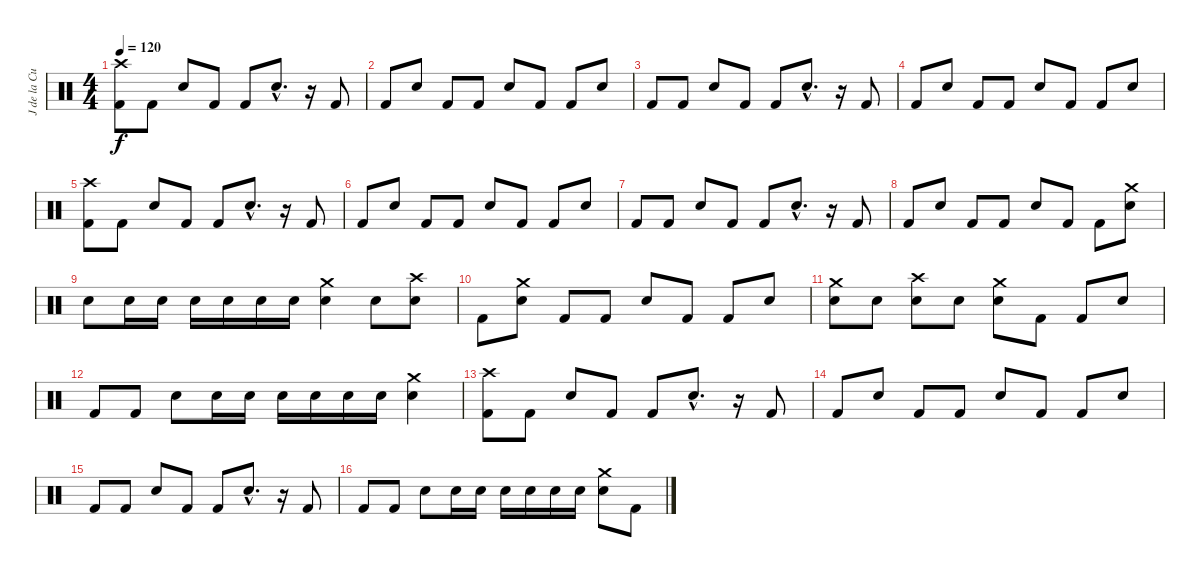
\track ("J de la Cueva" "J de la Cu") {instrument percussion}
\staff {score}
\articulation defaults
\ts (4 4)
\tempo 120
\clef neutral
\ks c
("Crash high (hit)" "Kick (hit) 2").8{dy f} "Kick (hit) 2".8 "Snare (hit) 2".8 "Kick (hit) 2".8 "Kick (hit) 2".8 "Snare (hit) 2"{hac}.8{d} r.16 "Kick (hit) 2".8 |
"Kick (hit) 2".8 "Snare (hit) 2".8 "Kick (hit) 2".8 "Kick (hit) 2".8 "Snare (hit) 2".8 "Kick (hit) 2".8 "Kick (hit) 2".8 "Snare (hit) 2".8 |
"Kick (hit) 2".8 "Kick (hit) 2".8 "Snare (hit) 2".8 "Kick (hit) 2".8 "Kick (hit) 2".8 "Snare (hit) 2"{hac}.8{d} r.16 "Kick (hit) 2".8 |
"Kick (hit) 2".8 "Snare (hit) 2".8 "Kick (hit) 2".8 "Kick (hit) 2".8 "Snare (hit) 2".8 "Kick (hit) 2".8 "Kick (hit) 2".8 "Snare (hit) 2".8 |
("Crash high (hit)" "Kick (hit) 2").8 "Kick (hit) 2".8 "Snare (hit) 2".8 "Kick (hit) 2".8 "Kick (hit) 2".8 "Snare (hit) 2"{hac}.8{d} r.16 "Kick (hit) 2".8 |
"Kick (hit) 2".8 "Snare (hit) 2".8 "Kick (hit) 2".8 "Kick (hit) 2".8 "Snare (hit) 2".8 "Kick (hit) 2".8 "Kick (hit) 2".8 "Snare (hit) 2".8 |
"Kick (hit) 2".8 "Kick (hit) 2".8 "Snare (hit) 2".8 "Kick (hit) 2".8 "Kick (hit) 2".8 "Snare (hit) 2"{hac}.8{d} r.16 "Kick (hit) 2".8 |
"Kick (hit) 2".8 "Snare (hit) 2".8 "Kick (hit) 2".8 "Kick (hit) 2".8 "Snare (hit) 2".8 "Kick (hit) 2".8 "Kick (hit) 2".8 ("Crash medium (hit)" "Snare (hit) 2").8 |
"Snare (hit) 2".8 "Snare (hit) 2".16 "Snare (hit) 2".16 "Snare (hit) 2".16 "Snare (hit) 2".16 "Snare (hit) 2".16 "Snare (hit) 2".16 ("Crash medium (hit)" "Snare (hit) 2").4 "Snare (hit) 2".8 ("Crash high (hit)" "Snare (hit) 2").8 |
"Kick (hit) 2".8 ("Crash medium (hit)" "Snare (hit) 2").8 "Kick (hit) 2".8 "Kick (hit) 2".8 "Snare (hit) 2".8 "Kick (hit) 2".8 "Kick (hit) 2".8 "Snare (hit) 2".8 |
("Crash medium (hit)" "Snare (hit) 2").8 "Snare (hit) 2".8 ("Crash high (hit)" "Snare (hit) 2").8 "Snare (hit) 2".8 ("Crash medium (hit)" "Snare (hit) 2").8 "Kick (hit) 2".8 "Kick (hit) 2".8 "Snare (hit) 2".8 |
"Kick (hit) 2".8 "Kick (hit) 2".8 "Snare (hit) 2".8 "Snare (hit) 2".16 "Snare (hit) 2".16 "Snare (hit) 2".16 "Snare (hit) 2".16 "Snare (hit) 2".16 "Snare (hit) 2".16 ("Crash medium (hit)" "Snare (hit) 2").4 |
("Crash high (hit)" "Kick (hit) 2").8 "Kick (hit) 2".8 "Snare (hit) 2".8 "Kick (hit) 2".8 "Kick (hit) 2".8 "Snare (hit) 2"{hac}.8{d} r.16 "Kick (hit) 2".8 |
"Kick (hit) 2".8 "Snare (hit) 2".8 "Kick (hit) 2".8 "Kick (hit) 2".8 "Snare (hit) 2".8 "Kick (hit) 2".8 "Kick (hit) 2".8 "Snare (hit) 2".8 |
"Kick (hit) 2".8 "Kick (hit) 2".8 "Snare (hit) 2".8 "Kick (hit) 2".8 "Kick (hit) 2".8 "Snare (hit) 2"{hac}.8{d} r.16 "Kick (hit) 2".8 |
"Kick (hit) 2".8 "Kick (hit) 2".8 "Snare (hit) 2".8 "Snare (hit) 2".16 "Snare (hit) 2".16 "Snare (hit) 2".16 "Snare (hit) 2".16 "Snare (hit) 2".16 "Snare (hit) 2".16 ("Crash medium (hit)" "Snare (hit) 2").8 "Kick (hit) 2".8
